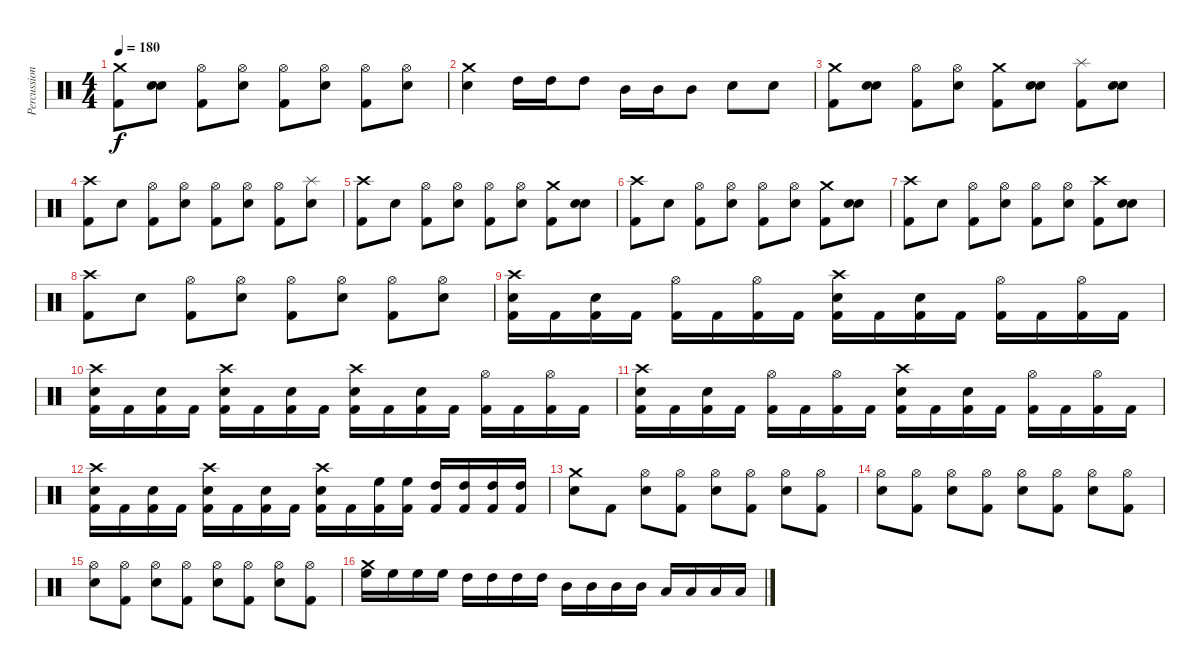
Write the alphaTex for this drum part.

\track ("Percussion" "Percussion") {instrument percussion}
\staff {score}
\articulation defaults
\ts (4 4)
\tempo 180
\clef neutral
\ks c
("Crash medium (hit)" "Kick (hit) 2").8{dy f} ("Snare (hit)" "Snare (hit) 2").8 ("Hi-Hat (open)" "Kick (hit) 2").8 ("Hi-Hat (open)" "Snare (hit) 2").8 ("Hi-Hat (open)" "Kick (hit) 2").8 ("Hi-Hat (open)" "Snare (hit) 2").8 ("Hi-Hat (open)" "Kick (hit) 2").8 ("Hi-Hat (open)" "Snare (hit) 2").8 |
("Crash medium (hit)" "Snare (hit) 2").4 "High Tom (hit)".16 "High Tom (hit)".16 "High Tom (hit)".8 "Mid Tom (hit)".16 "Mid Tom (hit)".16 "Mid Tom (hit)".8 "Snare (hit) 2".8 "Snare (hit) 2".8 |
("Crash medium (hit)" "Kick (hit) 2").8 ("Snare (hit)" "Snare (hit) 2").8 ("Hi-Hat (open)" "Kick (hit) 2").8 ("Hi-Hat (open)" "Snare (hit) 2").8 ("Crash medium (hit)" "Kick (hit) 2").8 ("Snare (hit)" "Snare (hit) 2").8 ("Splash (hit)" "Kick (hit) 2").8 ("Snare (hit)" "Snare (hit) 2").8 |
("Crash high (hit)" "Kick (hit) 2").8 "Snare (hit) 2".8 ("Hi-Hat (open)" "Kick (hit) 2").8 ("Hi-Hat (open)" "Snare (hit) 2").8 ("Hi-Hat (open)" "Kick (hit) 2").8 ("Hi-Hat (open)" "Snare (hit) 2").8 ("Hi-Hat (open)" "Kick (hit) 2").8 ("Splash (hit)" "Snare (hit) 2").8 |
("Crash high (hit)" "Kick (hit) 2").8 "Snare (hit) 2".8 ("Hi-Hat (open)" "Kick (hit) 2").8 ("Hi-Hat (open)" "Snare (hit) 2").8 ("Hi-Hat (open)" "Kick (hit) 2").8 ("Hi-Hat (open)" "Snare (hit) 2").8 ("Crash medium (hit)" "Kick (hit) 2").8 ("Snare (hit)" "Snare (hit) 2").8 |
("Crash high (hit)" "Kick (hit) 2").8 "Snare (hit) 2".8 ("Hi-Hat (open)" "Kick (hit) 2").8 ("Hi-Hat (open)" "Snare (hit) 2").8 ("Hi-Hat (open)" "Kick (hit) 2").8 ("Hi-Hat (open)" "Snare (hit) 2").8 ("Crash medium (hit)" "Kick (hit) 2").8 ("Snare (hit)" "Snare (hit) 2").8 |
("Crash high (hit)" "Kick (hit) 2").8 "Snare (hit) 2".8 ("Hi-Hat (open)" "Kick (hit) 2").8 ("Hi-Hat (open)" "Snare (hit) 2").8 ("Hi-Hat (open)" "Kick (hit) 2").8 ("Hi-Hat (open)" "Snare (hit) 2").8 ("Crash high (hit)" "Kick (hit) 2").8 ("Snare (hit)" "Snare (hit) 2").8 |
("Crash high (hit)" "Kick (hit) 2").8 "Snare (hit) 2".8 ("Hi-Hat (open)" "Kick (hit) 2").8 ("Hi-Hat (open)" "Snare (hit) 2").8 ("Hi-Hat (open)" "Kick (hit) 2").8 ("Hi-Hat (open)" "Snare (hit) 2").8 ("Hi-Hat (open)" "Kick (hit) 2").8 ("Hi-Hat (open)" "Snare (hit) 2").8 |
("Crash high (hit)" "Snare (hit) 2" "Kick (hit) 2").16 "Kick (hit) 2".16 ("Snare (hit)" "Kick (hit) 2").16 "Kick (hit) 2".16 ("Hi-Hat (open)" "Kick (hit) 2").16 "Kick (hit) 2".16 ("Hi-Hat (open)" "Kick (hit) 2").16 "Kick (hit) 2".16 ("Crash high (hit)" "Snare (hit) 2" "Kick (hit) 2").16 "Kick (hit) 2".16 ("Snare (hit)" "Kick (hit) 2").16 "Kick (hit) 2".16 ("Hi-Hat (open)" "Kick (hit) 2").16 "Kick (hit) 2".16 ("Hi-Hat (open)" "Kick (hit) 2").16 "Kick (hit) 2".16 |
("Crash high (hit)" "Snare (hit) 2" "Kick (hit) 2").16 "Kick (hit) 2".16 ("Snare (hit)" "Kick (hit) 2").16 "Kick (hit) 2".16 ("Crash high (hit)" "Snare (hit) 2" "Kick (hit) 2").16 "Kick (hit) 2".16 ("Snare (hit)" "Kick (hit) 2").16 "Kick (hit) 2".16 ("Crash high (hit)" "Snare (hit) 2" "Kick (hit) 2").16 "Kick (hit) 2".16 ("Snare (hit)" "Kick (hit) 2").16 "Kick (hit) 2".16 ("Hi-Hat (open)" "Kick (hit) 2").16 "Kick (hit) 2".16 ("Hi-Hat (open)" "Kick (hit) 2").16 "Kick (hit) 2".16 |
("Crash high (hit)" "Snare (hit) 2" "Kick (hit) 2").16 "Kick (hit) 2".16 ("Snare (hit)" "Kick (hit) 2").16 "Kick (hit) 2".16 ("Hi-Hat (open)" "Kick (hit) 2").16 "Kick (hit) 2".16 ("Hi-Hat (open)" "Kick (hit) 2").16 "Kick (hit) 2".16 ("Crash high (hit)" "Snare (hit) 2" "Kick (hit) 2").16 "Kick (hit) 2".16 ("Snare (hit)" "Kick (hit) 2").16 "Kick (hit) 2".16 ("Hi-Hat (open)" "Kick (hit) 2").16 "Kick (hit) 2".16 ("Hi-Hat (open)" "Kick (hit) 2").16 "Kick (hit) 2".16 |
("Crash high (hit)" "Snare (hit) 2" "Kick (hit) 2").16 "Kick (hit) 2".16 ("Snare (hit)" "Kick (hit) 2").16 "Kick (hit) 2".16 ("Crash high (hit)" "Snare (hit) 2" "Kick (hit) 2").16 "Kick (hit) 2".16 ("Snare (hit)" "Kick (hit) 2").16 "Kick (hit) 2".16 ("Crash high (hit)" "Snare (hit) 2" "Kick (hit) 2").16 "Kick (hit) 2".16 ("High Floor Tom (hit)" "Kick (hit) 2").16 ("High Floor Tom (hit)" "Kick (hit) 2").16 ("High Tom (hit)" "Kick (hit) 2").16 ("High Tom (hit)" "Kick (hit) 2").16 ("High Tom (hit)" "Kick (hit) 2").16 ("High Tom (hit)" "Kick (hit) 2").16 |
("Crash medium (hit)" "Snare (hit) 2").8 "Kick (hit) 2".8 ("Hi-Hat (open)" "Snare (hit) 2").8 ("Hi-Hat (open)" "Kick (hit) 2").8 ("Hi-Hat (open)" "Snare (hit) 2").8 ("Hi-Hat (open)" "Kick (hit) 2").8 ("Hi-Hat (open)" "Snare (hit) 2").8 ("Hi-Hat (open)" "Kick (hit) 2").8 |
("Hi-Hat (open)" "Snare (hit) 2").8 ("Hi-Hat (open)" "Kick (hit) 2").8 ("Hi-Hat (open)" "Snare (hit) 2").8 ("Hi-Hat (open)" "Kick (hit) 2").8 ("Hi-Hat (open)" "Snare (hit) 2").8 ("Hi-Hat (open)" "Kick (hit) 2").8 ("Hi-Hat (open)" "Snare (hit) 2").8 ("Hi-Hat (open)" "Kick (hit) 2").8 |
("Hi-Hat (open)" "Snare (hit) 2").8 ("Hi-Hat (open)" "Kick (hit) 2").8 ("Hi-Hat (open)" "Snare (hit) 2").8 ("Hi-Hat (open)" "Kick (hit) 2").8 ("Hi-Hat (open)" "Snare (hit) 2").8 ("Hi-Hat (open)" "Kick (hit) 2").8 ("Hi-Hat (open)" "Snare (hit) 2").8 ("Hi-Hat (open)" "Kick (hit) 2").8 |
("Crash medium (hit)" "High Floor Tom (hit)").16 "High Floor Tom (hit)".16 "High Floor Tom (hit)".16 "High Floor Tom (hit)".16 "High Tom (hit)".16 "High Tom (hit)".16 "High Tom (hit)".16 "High Tom (hit)".16 "Mid Tom (hit)".16 "Mid Tom (hit)".16 "Mid Tom (hit)".16 "Mid Tom (hit)".16 "Low Tom (hit)".16 "Low Tom (hit)".16 "Low Tom (hit)".16 "Low Tom (hit)".16
